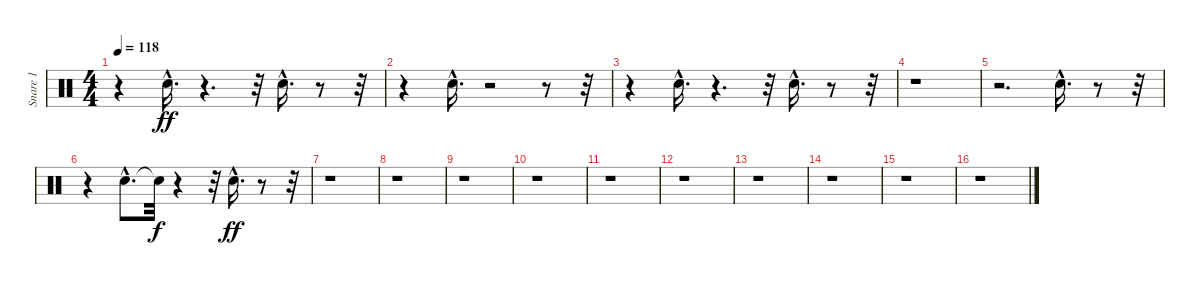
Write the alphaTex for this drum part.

\track ("Snare 1             " "Snare 1   ") {instrument percussion}
\staff {score}
\articulation defaults
\ts (4 4)
\tempo 118
\clef neutral
\ks c
r.4{dy ff} "Snare (hit) 2"{hac}.16{d} r.4{d} r.32 "Snare (hit) 2"{hac}.16{d} r.8 r.32 |
r.4 "Snare (hit) 2"{hac}.16{d} r.2 r.8 r.32 |
r.4 "Snare (hit) 2"{hac}.16{d} r.4{d} r.32 "Snare (hit) 2"{hac}.16{d} r.8 r.32 |
r.1 |
r.2{d} "Snare (hit) 2"{hac}.16{d} r.8 r.32 |
r.4 "Snare (hit) 2"{hac}.8{d} "Snare (hit)"{t}.32{dy f} r.4 r.32 "Snare (hit) 2"{hac}.16{d dy ff} r.8 r.32 |
r.1 |
r.1 |
r.1 |
r.1 |
r.1 |
r.1 |
r.1 |
r.1 |
r.1 |
r.1
